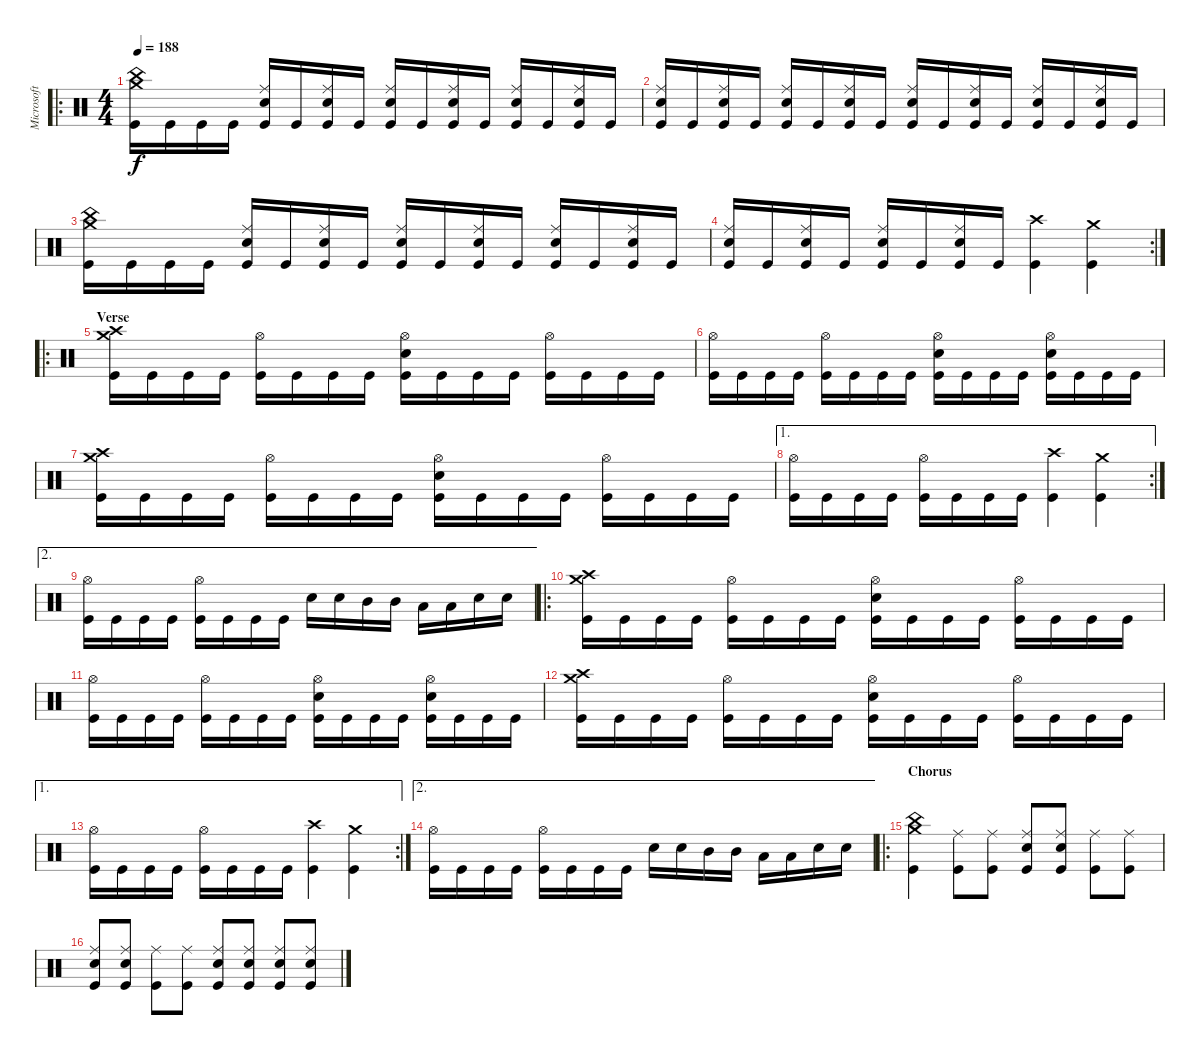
\track ("Microsoft S.A.M." "Microsoft ") {instrument percussion}
\staff {score}
\articulation defaults
\ro
\ts (4 4)
\tempo 188
\clef neutral
\ks c
("Kick (hit)" "Crash medium (hit)" "China (hit)").16{dy f} "Kick (hit)".16 "Kick (hit)".16 "Kick (hit)".16 ("Kick (hit)" "Ride (middle)" "Snare (hit) 2").16 "Kick (hit)".16 ("Kick (hit)" "Ride (middle)" "Snare (hit) 2").16 "Kick (hit)".16 ("Kick (hit)" "Ride (middle)" "Snare (hit) 2").16 "Kick (hit)".16 ("Kick (hit)" "Ride (middle)" "Snare (hit) 2").16 "Kick (hit)".16 ("Kick (hit)" "Ride (middle)" "Snare (hit) 2").16 "Kick (hit)".16 ("Kick (hit)" "Ride (middle)" "Snare (hit) 2").16 "Kick (hit)".16 |
("Kick (hit)" "Ride (middle)" "Snare (hit) 2").16 "Kick (hit)".16 ("Kick (hit)" "Ride (middle)" "Snare (hit) 2").16 "Kick (hit)".16 ("Kick (hit)" "Ride (middle)" "Snare (hit) 2").16 "Kick (hit)".16 ("Kick (hit)" "Ride (middle)" "Snare (hit) 2").16 "Kick (hit)".16 ("Kick (hit)" "Ride (middle)" "Snare (hit) 2").16 "Kick (hit)".16 ("Kick (hit)" "Ride (middle)" "Snare (hit) 2").16 "Kick (hit)".16 ("Kick (hit)" "Ride (middle)" "Snare (hit) 2").16 "Kick (hit)".16 ("Kick (hit)" "Ride (middle)" "Snare (hit) 2").16 "Kick (hit)".16 |
("Kick (hit)" "Crash medium (hit)" "China (hit)").16 "Kick (hit)".16 "Kick (hit)".16 "Kick (hit)".16 ("Kick (hit)" "Ride (middle)" "Snare (hit) 2").16 "Kick (hit)".16 ("Kick (hit)" "Ride (middle)" "Snare (hit) 2").16 "Kick (hit)".16 ("Kick (hit)" "Ride (middle)" "Snare (hit) 2").16 "Kick (hit)".16 ("Kick (hit)" "Ride (middle)" "Snare (hit) 2").16 "Kick (hit)".16 ("Kick (hit)" "Ride (middle)" "Snare (hit) 2").16 "Kick (hit)".16 ("Kick (hit)" "Ride (middle)" "Snare (hit) 2").16 "Kick (hit)".16 |
\rc 2
("Kick (hit)" "Ride (middle)" "Snare (hit) 2").16 "Kick (hit)".16 ("Kick (hit)" "Ride (middle)" "Snare (hit) 2").16 "Kick (hit)".16 ("Kick (hit)" "Ride (middle)" "Snare (hit) 2").16 "Kick (hit)".16 ("Kick (hit)" "Ride (middle)" "Snare (hit) 2").16 "Kick (hit)".16 ("Kick (hit)" "Crash high (hit)").4 ("Kick (hit)" "Crash medium (hit)").4 |
\ro
\section ("" "Verse")
("Kick (hit)" "Crash medium (hit)" "Crash high (hit)").16 "Kick (hit)".16 "Kick (hit)".16 "Kick (hit)".16 ("Kick (hit)" "Hi-Hat (open)").16 "Kick (hit)".16 "Kick (hit)".16 "Kick (hit)".16 ("Kick (hit)" "Hi-Hat (open)" "Snare (hit) 2").16 "Kick (hit)".16 "Kick (hit)".16 "Kick (hit)".16 ("Kick (hit)" "Hi-Hat (open)").16 "Kick (hit)".16 "Kick (hit)".16 "Kick (hit)".16 |
("Kick (hit)" "Hi-Hat (open)").16 "Kick (hit)".16 "Kick (hit)".16 "Kick (hit)".16 ("Kick (hit)" "Hi-Hat (open)").16 "Kick (hit)".16 "Kick (hit)".16 "Kick (hit)".16 ("Kick (hit)" "Hi-Hat (open)" "Snare (hit) 2").16 "Kick (hit)".16 "Kick (hit)".16 "Kick (hit)".16 ("Kick (hit)" "Hi-Hat (open)" "Snare (hit) 2").16 "Kick (hit)".16 "Kick (hit)".16 "Kick (hit)".16 |
("Kick (hit)" "Crash medium (hit)" "Crash high (hit)").16 "Kick (hit)".16 "Kick (hit)".16 "Kick (hit)".16 ("Kick (hit)" "Hi-Hat (open)").16 "Kick (hit)".16 "Kick (hit)".16 "Kick (hit)".16 ("Kick (hit)" "Hi-Hat (open)" "Snare (hit) 2").16 "Kick (hit)".16 "Kick (hit)".16 "Kick (hit)".16 ("Kick (hit)" "Hi-Hat (open)").16 "Kick (hit)".16 "Kick (hit)".16 "Kick (hit)".16 |
\ae 1
\rc 2
("Kick (hit)" "Hi-Hat (open)").16 "Kick (hit)".16 "Kick (hit)".16 "Kick (hit)".16 ("Kick (hit)" "Hi-Hat (open)").16 "Kick (hit)".16 "Kick (hit)".16 "Kick (hit)".16 ("Kick (hit)" "Crash high (hit)").4 ("Kick (hit)" "Crash medium (hit)").4 |
\ae 2
("Kick (hit)" "Hi-Hat (open)").16 "Kick (hit)".16 "Kick (hit)".16 "Kick (hit)".16 ("Kick (hit)" "Hi-Hat (open)").16 "Kick (hit)".16 "Kick (hit)".16 "Kick (hit)".16 "Snare (hit) 2".16 "Snare (hit) 2".16 "Mid Tom (hit)".16 "Mid Tom (hit)".16 "Low Tom (hit)".16 "Low Tom (hit)".16 "Snare (hit) 2".16 "Snare (hit) 2".16 |
\ro
("Kick (hit)" "Crash medium (hit)" "Crash high (hit)").16 "Kick (hit)".16 "Kick (hit)".16 "Kick (hit)".16 ("Kick (hit)" "Hi-Hat (open)").16 "Kick (hit)".16 "Kick (hit)".16 "Kick (hit)".16 ("Kick (hit)" "Hi-Hat (open)" "Snare (hit) 2").16 "Kick (hit)".16 "Kick (hit)".16 "Kick (hit)".16 ("Kick (hit)" "Hi-Hat (open)").16 "Kick (hit)".16 "Kick (hit)".16 "Kick (hit)".16 |
("Kick (hit)" "Hi-Hat (open)").16 "Kick (hit)".16 "Kick (hit)".16 "Kick (hit)".16 ("Kick (hit)" "Hi-Hat (open)").16 "Kick (hit)".16 "Kick (hit)".16 "Kick (hit)".16 ("Kick (hit)" "Hi-Hat (open)" "Snare (hit) 2").16 "Kick (hit)".16 "Kick (hit)".16 "Kick (hit)".16 ("Kick (hit)" "Hi-Hat (open)" "Snare (hit) 2").16 "Kick (hit)".16 "Kick (hit)".16 "Kick (hit)".16 |
("Kick (hit)" "Crash medium (hit)" "Crash high (hit)").16 "Kick (hit)".16 "Kick (hit)".16 "Kick (hit)".16 ("Kick (hit)" "Hi-Hat (open)").16 "Kick (hit)".16 "Kick (hit)".16 "Kick (hit)".16 ("Kick (hit)" "Hi-Hat (open)" "Snare (hit) 2").16 "Kick (hit)".16 "Kick (hit)".16 "Kick (hit)".16 ("Kick (hit)" "Hi-Hat (open)").16 "Kick (hit)".16 "Kick (hit)".16 "Kick (hit)".16 |
\ae 1
\rc 2
("Kick (hit)" "Hi-Hat (open)").16 "Kick (hit)".16 "Kick (hit)".16 "Kick (hit)".16 ("Kick (hit)" "Hi-Hat (open)").16 "Kick (hit)".16 "Kick (hit)".16 "Kick (hit)".16 ("Kick (hit)" "Crash high (hit)").4 ("Kick (hit)" "Crash medium (hit)").4 |
\ae 2
("Kick (hit)" "Hi-Hat (open)").16 "Kick (hit)".16 "Kick (hit)".16 "Kick (hit)".16 ("Kick (hit)" "Hi-Hat (open)").16 "Kick (hit)".16 "Kick (hit)".16 "Kick (hit)".16 "Snare (hit) 2".16 "Snare (hit) 2".16 "Mid Tom (hit)".16 "Mid Tom (hit)".16 "Low Tom (hit)".16 "Low Tom (hit)".16 "Snare (hit) 2".16 "Snare (hit) 2".16 |
\ro
\section ("" "Chorus")
("Kick (hit)" "China (hit)" "Crash medium (hit)").4 ("Kick (hit)" "Ride (middle)").8 ("Kick (hit)" "Ride (middle)").8 ("Kick (hit)" "Ride (middle)" "Snare (hit) 2").8 ("Kick (hit)" "Ride (middle)" "Snare (hit) 2").8 ("Kick (hit)" "Ride (middle)").8 ("Kick (hit)" "Ride (middle)").8 |
("Kick (hit)" "Ride (middle)" "Snare (hit) 2").8 ("Kick (hit)" "Ride (middle)" "Snare (hit) 2").8 ("Kick (hit)" "Ride (middle)").8 ("Kick (hit)" "Ride (middle)").8 ("Kick (hit)" "Ride (middle)" "Snare (hit) 2").8 ("Kick (hit)" "Ride (middle)" "Snare (hit) 2").8 ("Kick (hit)" "Ride (middle)" "Snare (hit) 2").8 ("Kick (hit)" "Ride (middle)" "Snare (hit) 2").8
